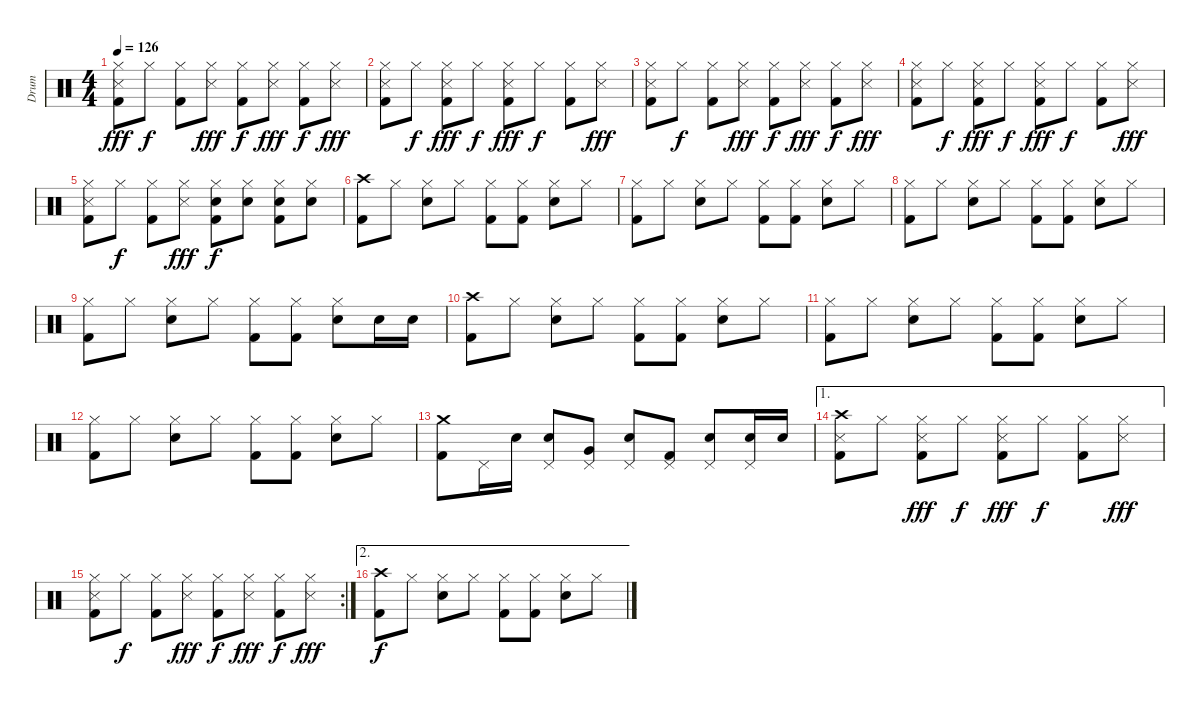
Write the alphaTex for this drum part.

\track ("Drum" "Drum") {instrument percussion}
\staff {score}
\articulation defaults
\ts (4 4)
\tempo 126
\clef neutral
\ks c
("Snare (side stick) 3" "Hi-Hat (closed)" "Kick (hit) 2").8{dy fff} "Hi-Hat (closed)".8{dy f} ("Hi-Hat (closed)" "Kick (hit) 2").8 ("Snare (side stick) 3" "Hi-Hat (closed)").8{dy fff} ("Hi-Hat (closed)" "Kick (hit) 2").8{dy f} ("Snare (side stick) 3" "Hi-Hat (closed)").8{dy fff} ("Hi-Hat (closed)" "Kick (hit) 2").8{dy f} ("Snare (side stick) 3" "Hi-Hat (closed)").8{dy fff} |
("Snare (side stick) 3" "Hi-Hat (closed)" "Kick (hit) 2").8 "Hi-Hat (closed)".8{dy f} ("Snare (side stick) 3" "Hi-Hat (closed)" "Kick (hit) 2").8{dy fff} "Hi-Hat (closed)".8{dy f} ("Snare (side stick) 3" "Hi-Hat (closed)" "Kick (hit) 2").8{dy fff} "Hi-Hat (closed)".8{dy f} ("Hi-Hat (closed)" "Kick (hit) 2").8 ("Snare (side stick) 3" "Hi-Hat (closed)").8{dy fff} |
("Snare (side stick) 3" "Hi-Hat (closed)" "Kick (hit) 2").8 "Hi-Hat (closed)".8{dy f} ("Hi-Hat (closed)" "Kick (hit) 2").8 ("Snare (side stick) 3" "Hi-Hat (closed)").8{dy fff} ("Hi-Hat (closed)" "Kick (hit) 2").8{dy f} ("Snare (side stick) 3" "Hi-Hat (closed)").8{dy fff} ("Hi-Hat (closed)" "Kick (hit) 2").8{dy f} ("Snare (side stick) 3" "Hi-Hat (closed)").8{dy fff} |
("Snare (side stick) 3" "Hi-Hat (closed)" "Kick (hit) 2").8 "Hi-Hat (closed)".8{dy f} ("Snare (side stick) 3" "Hi-Hat (closed)" "Kick (hit) 2").8{dy fff} "Hi-Hat (closed)".8{dy f} ("Snare (side stick) 3" "Hi-Hat (closed)" "Kick (hit) 2").8{dy fff} "Hi-Hat (closed)".8{dy f} ("Hi-Hat (closed)" "Kick (hit) 2").8 ("Snare (side stick) 3" "Hi-Hat (closed)").8{dy fff} |
("Snare (side stick) 3" "Hi-Hat (closed)" "Kick (hit) 2").8 "Hi-Hat (closed)".8{dy f} ("Hi-Hat (closed)" "Kick (hit) 2").8 ("Snare (side stick) 3" "Hi-Hat (closed)").8{dy fff} ("Electric Snare (hit)" "Hi-Hat (closed)" "Kick (hit) 2").8{dy f} ("Electric Snare (hit)" "Hi-Hat (closed)").8 ("Electric Snare (hit)" "Hi-Hat (closed)" "Kick (hit) 2").8 ("Electric Snare (hit)" "Hi-Hat (closed)").8 |
("Crash high (hit)" "Kick (hit) 2").8 "Hi-Hat (closed)".8 ("Electric Snare (hit)" "Hi-Hat (closed)").8 "Hi-Hat (closed)".8 ("Hi-Hat (closed)" "Kick (hit) 2").8 ("Hi-Hat (closed)" "Kick (hit) 2").8 ("Electric Snare (hit)" "Hi-Hat (closed)").8 "Hi-Hat (closed)".8 |
("Hi-Hat (closed)" "Kick (hit) 2").8 "Hi-Hat (closed)".8 ("Electric Snare (hit)" "Hi-Hat (closed)").8 "Hi-Hat (closed)".8 ("Hi-Hat (closed)" "Kick (hit) 2").8 ("Hi-Hat (closed)" "Kick (hit) 2").8 ("Electric Snare (hit)" "Hi-Hat (closed)").8 "Hi-Hat (closed)".8 |
("Hi-Hat (closed)" "Kick (hit) 2").8 "Hi-Hat (closed)".8 ("Electric Snare (hit)" "Hi-Hat (closed)").8 "Hi-Hat (closed)".8 ("Hi-Hat (closed)" "Kick (hit) 2").8 ("Hi-Hat (closed)" "Kick (hit) 2").8 ("Electric Snare (hit)" "Hi-Hat (closed)").8 "Hi-Hat (closed)".8 |
("Hi-Hat (closed)" "Kick (hit) 2").8 "Hi-Hat (closed)".8 ("Electric Snare (hit)" "Hi-Hat (closed)").8 "Hi-Hat (closed)".8 ("Hi-Hat (closed)" "Kick (hit) 2").8 ("Hi-Hat (closed)" "Kick (hit) 2").8 ("Electric Snare (hit)" "Hi-Hat (closed)").8 "Electric Snare (hit)".16 "Electric Snare (hit)".16 |
("Crash high (hit)" "Kick (hit) 2").8 "Hi-Hat (closed)".8 ("Electric Snare (hit)" "Hi-Hat (closed)").8 "Hi-Hat (closed)".8 ("Hi-Hat (closed)" "Kick (hit) 2").8 ("Hi-Hat (closed)" "Kick (hit) 2").8 ("Electric Snare (hit)" "Hi-Hat (closed)").8 "Hi-Hat (closed)".8 |
("Hi-Hat (closed)" "Kick (hit) 2").8 "Hi-Hat (closed)".8 ("Electric Snare (hit)" "Hi-Hat (closed)").8 "Hi-Hat (closed)".8 ("Hi-Hat (closed)" "Kick (hit) 2").8 ("Hi-Hat (closed)" "Kick (hit) 2").8 ("Electric Snare (hit)" "Hi-Hat (closed)").8 "Hi-Hat (closed)".8 |
("Hi-Hat (closed)" "Kick (hit) 2").8 "Hi-Hat (closed)".8 ("Electric Snare (hit)" "Hi-Hat (closed)").8 "Hi-Hat (closed)".8 ("Hi-Hat (closed)" "Kick (hit) 2").8 ("Hi-Hat (closed)" "Kick (hit) 2").8 ("Electric Snare (hit)" "Hi-Hat (closed)").8 "Hi-Hat (closed)".8 |
("Crash medium (hit)" "Kick (hit) 2").8 "Pedal Hi-Hat (hit)".16 "Electric Snare (hit)".16 ("Electric Snare (hit)" "Pedal Hi-Hat (hit)").8 ("Pedal Hi-Hat (hit)" "Very Low Tom (hit)").8 ("Electric Snare (hit)" "Pedal Hi-Hat (hit)").8 ("Pedal Hi-Hat (hit)" "Kick (hit) 2").8 ("Electric Snare (hit)" "Pedal Hi-Hat (hit)").8 ("Electric Snare (hit)" "Pedal Hi-Hat (hit)").16 "Electric Snare (hit)".16 |
\ae 1
("Crash high (hit)" "Snare (side stick) 3" "Kick (hit) 2").8 "Hi-Hat (closed)".8 ("Snare (side stick) 3" "Hi-Hat (closed)" "Kick (hit) 2").8{dy fff} "Hi-Hat (closed)".8{dy f} ("Snare (side stick) 3" "Hi-Hat (closed)" "Kick (hit) 2").8{dy fff} "Hi-Hat (closed)".8{dy f} ("Hi-Hat (closed)" "Kick (hit) 2").8 ("Snare (side stick) 3" "Hi-Hat (closed)").8{dy fff} |
\rc 2
("Snare (side stick) 3" "Hi-Hat (closed)" "Kick (hit) 2").8 "Hi-Hat (closed)".8{dy f} ("Hi-Hat (closed)" "Kick (hit) 2").8 ("Snare (side stick) 3" "Hi-Hat (closed)").8{dy fff} ("Hi-Hat (closed)" "Kick (hit) 2").8{dy f} ("Snare (side stick) 3" "Hi-Hat (closed)").8{dy fff} ("Hi-Hat (closed)" "Kick (hit) 2").8{dy f} ("Snare (side stick) 3" "Hi-Hat (closed)").8{dy fff} |
\ae 2
("Crash high (hit)" "Kick (hit) 2").8{dy f} "Hi-Hat (closed)".8 ("Electric Snare (hit)" "Hi-Hat (closed)").8 "Hi-Hat (closed)".8 ("Hi-Hat (closed)" "Kick (hit) 2").8 ("Hi-Hat (closed)" "Kick (hit) 2").8 ("Electric Snare (hit)" "Hi-Hat (closed)").8 "Hi-Hat (closed)".8
